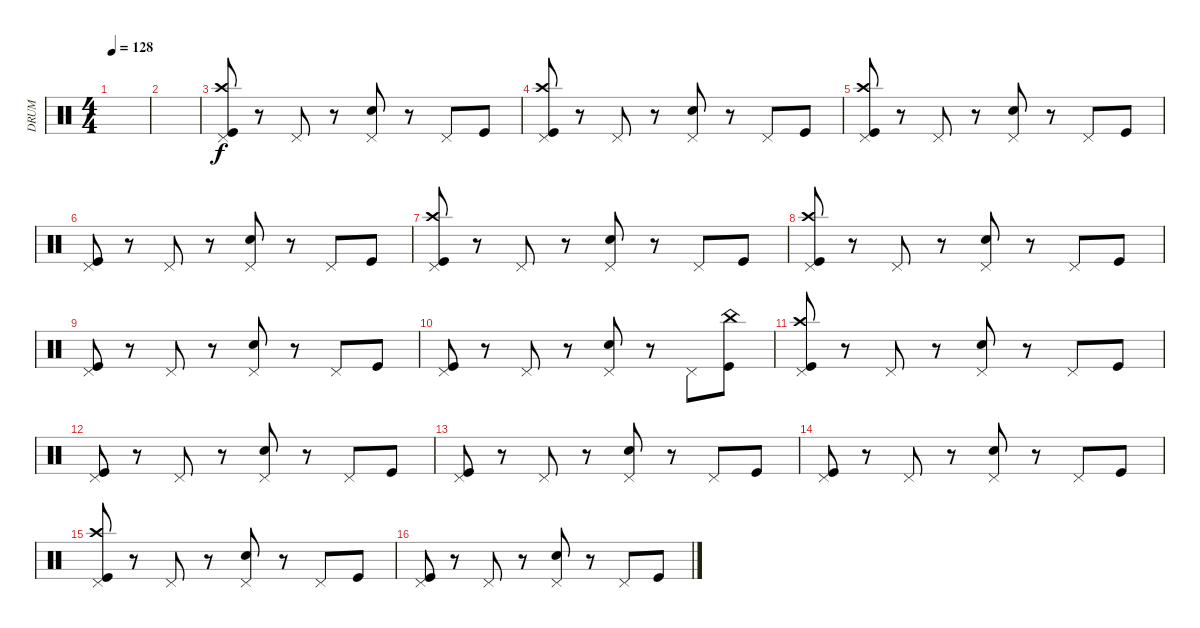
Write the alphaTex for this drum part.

\track ("DRUM" "DRUM") {instrument percussion}
\staff {score}
\articulation defaults
\ts (4 4)
\tempo 128
\clef neutral
\ks c
|
|
("Pedal Hi-Hat (hit)" "Crash high (hit)" "Kick (hit)").8 r.8 "Pedal Hi-Hat (hit)".8 r.8 ("Pedal Hi-Hat (hit)" "Snare (hit) 2").8 r.8 "Pedal Hi-Hat (hit)".8 "Kick (hit)".8 |
("Pedal Hi-Hat (hit)" "Crash high (hit)" "Kick (hit)").8 r.8 "Pedal Hi-Hat (hit)".8 r.8 ("Pedal Hi-Hat (hit)" "Snare (hit) 2").8 r.8 "Pedal Hi-Hat (hit)".8 "Kick (hit)".8 |
("Pedal Hi-Hat (hit)" "Crash high (hit)" "Kick (hit)").8 r.8 "Pedal Hi-Hat (hit)".8 r.8 ("Pedal Hi-Hat (hit)" "Snare (hit) 2").8 r.8 "Pedal Hi-Hat (hit)".8 "Kick (hit)".8 |
("Pedal Hi-Hat (hit)" "Kick (hit)").8 r.8 "Pedal Hi-Hat (hit)".8 r.8 ("Pedal Hi-Hat (hit)" "Snare (hit) 2").8 r.8 "Pedal Hi-Hat (hit)".8 "Kick (hit)".8 |
("Pedal Hi-Hat (hit)" "Crash high (hit)" "Kick (hit)").8 r.8 "Pedal Hi-Hat (hit)".8 r.8 ("Pedal Hi-Hat (hit)" "Snare (hit) 2").8 r.8 "Pedal Hi-Hat (hit)".8 "Kick (hit)".8 |
("Pedal Hi-Hat (hit)" "Crash high (hit)" "Kick (hit)").8 r.8 "Pedal Hi-Hat (hit)".8 r.8 ("Pedal Hi-Hat (hit)" "Snare (hit) 2").8 r.8 "Pedal Hi-Hat (hit)".8 "Kick (hit)".8 |
("Pedal Hi-Hat (hit)" "Kick (hit)").8 r.8 "Pedal Hi-Hat (hit)".8 r.8 ("Pedal Hi-Hat (hit)" "Snare (hit) 2").8 r.8 "Pedal Hi-Hat (hit)".8 "Kick (hit)".8 |
("Pedal Hi-Hat (hit)" "Kick (hit)").8 r.8 "Pedal Hi-Hat (hit)".8 r.8 ("Pedal Hi-Hat (hit)" "Snare (hit) 2").8 r.8 "Pedal Hi-Hat (hit)".8 ("China (hit)" "Kick (hit)").8 |
("Pedal Hi-Hat (hit)" "Crash high (hit)" "Kick (hit)").8 r.8 "Pedal Hi-Hat (hit)".8 r.8 ("Pedal Hi-Hat (hit)" "Snare (hit) 2").8 r.8 "Pedal Hi-Hat (hit)".8 "Kick (hit)".8 |
("Pedal Hi-Hat (hit)" "Kick (hit)").8 r.8 "Pedal Hi-Hat (hit)".8 r.8 ("Pedal Hi-Hat (hit)" "Snare (hit) 2").8 r.8 "Pedal Hi-Hat (hit)".8 "Kick (hit)".8 |
("Pedal Hi-Hat (hit)" "Kick (hit)").8 r.8 "Pedal Hi-Hat (hit)".8 r.8 ("Pedal Hi-Hat (hit)" "Snare (hit) 2").8 r.8 "Pedal Hi-Hat (hit)".8 "Kick (hit)".8 |
("Pedal Hi-Hat (hit)" "Kick (hit)").8 r.8 "Pedal Hi-Hat (hit)".8 r.8 ("Pedal Hi-Hat (hit)" "Snare (hit) 2").8 r.8 "Pedal Hi-Hat (hit)".8 "Kick (hit)".8 |
("Pedal Hi-Hat (hit)" "Crash high (hit)" "Kick (hit)").8 r.8 "Pedal Hi-Hat (hit)".8 r.8 ("Pedal Hi-Hat (hit)" "Snare (hit) 2").8 r.8 "Pedal Hi-Hat (hit)".8 "Kick (hit)".8 |
("Pedal Hi-Hat (hit)" "Kick (hit)").8 r.8 "Pedal Hi-Hat (hit)".8 r.8 ("Pedal Hi-Hat (hit)" "Snare (hit) 2").8 r.8 "Pedal Hi-Hat (hit)".8 "Kick (hit)".8
